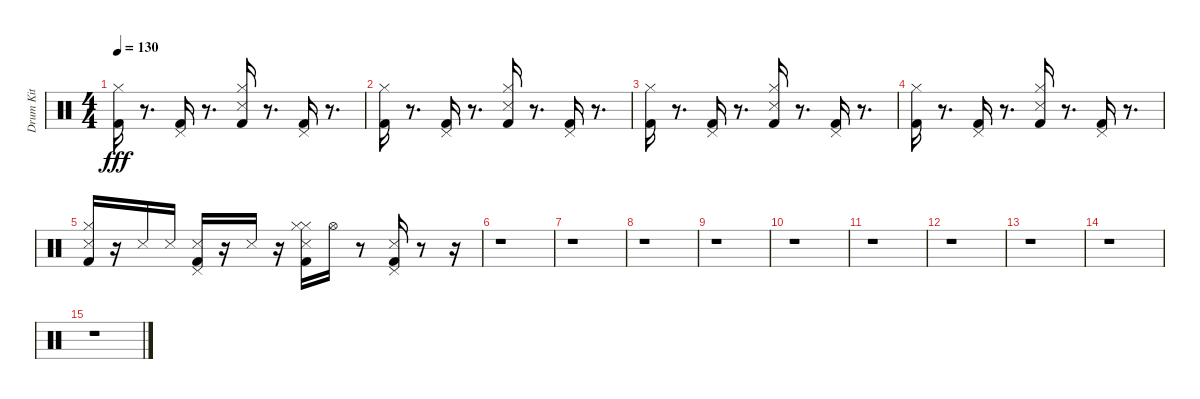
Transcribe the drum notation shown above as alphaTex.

\track ("Drum Kit" "Drum Kit") {instrument percussion}
\staff {score}
\articulation defaults
\ts (4 4)
\tempo 130
\clef neutral
\ks c
("Kick (hit) 2" "Hi-Hat (closed)").16{dy fff} r.8{d} ("Kick (hit) 2" "Pedal Hi-Hat (hit)").16 r.8{d} ("Kick (hit) 2" "Snare (side stick) 3" "Hi-Hat (closed)").16 r.8{d} ("Kick (hit) 2" "Pedal Hi-Hat (hit)").16 r.8{d} |
("Kick (hit) 2" "Hi-Hat (closed)").16 r.8{d} ("Kick (hit) 2" "Pedal Hi-Hat (hit)").16 r.8{d} ("Kick (hit) 2" "Snare (side stick) 3" "Hi-Hat (closed)").16 r.8{d} ("Kick (hit) 2" "Pedal Hi-Hat (hit)").16 r.8{d} |
("Kick (hit) 2" "Hi-Hat (closed)").16 r.8{d} ("Kick (hit) 2" "Pedal Hi-Hat (hit)").16 r.8{d} ("Kick (hit) 2" "Snare (side stick) 3" "Hi-Hat (closed)").16 r.8{d} ("Kick (hit) 2" "Pedal Hi-Hat (hit)").16 r.8{d} |
("Kick (hit) 2" "Hi-Hat (closed)").16 r.8{d} ("Kick (hit) 2" "Pedal Hi-Hat (hit)").16 r.8{d} ("Kick (hit) 2" "Snare (side stick) 3" "Hi-Hat (closed)").16 r.8{d} ("Kick (hit) 2" "Pedal Hi-Hat (hit)").16 r.8{d} |
("Kick (hit) 2" "Snare (side stick) 3" "Hi-Hat (closed)").16 r.16 "Snare (side stick) 3".16 "Snare (side stick) 3".16 ("Kick (hit) 2" "Snare (side stick) 3" "Pedal Hi-Hat (hit)").16 r.16 "Snare (side stick) 3".16 r.16 ("Kick (hit) 2" "Snare (side stick) 3" "Hi-Hat (closed)" "Hi-Hat (closed)").16 "Hi-Hat (open)".16 r.8 ("Kick (hit) 2" "Snare (side stick) 3" "Pedal Hi-Hat (hit)").16 r.8 r.16 |
r.1 |
r.1 |
r.1 |
r.1 |
r.1 |
r.1 |
r.1 |
r.1 |
r.1 |
r.1
